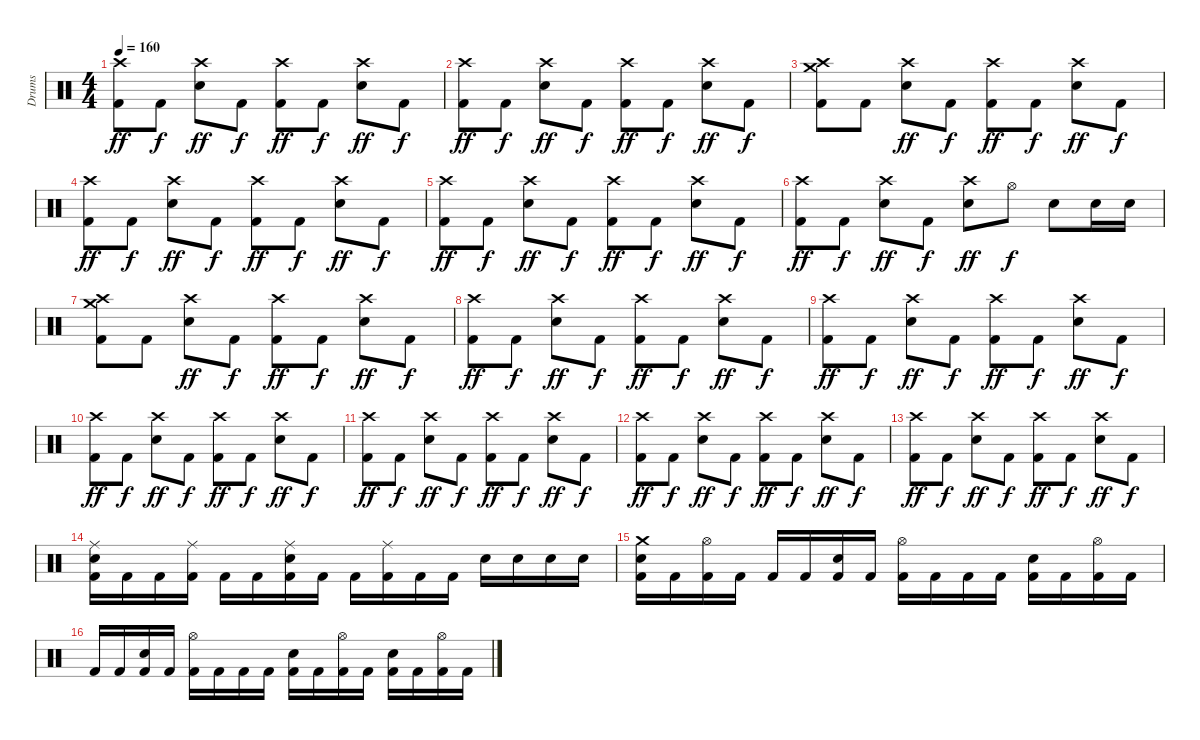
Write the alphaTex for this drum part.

\track ("Drums" "Drums") {instrument percussion}
\staff {score}
\articulation defaults
\ts (4 4)
\tempo 160
\clef neutral
\ks c
("Crash high (hit)" "Kick (hit) 2").8{dy ff} "Kick (hit) 2".8{dy f} ("Crash high (hit)" "Snare (hit) 2").8{dy ff} "Kick (hit) 2".8{dy f} ("Crash high (hit)" "Kick (hit) 2").8{dy ff} "Kick (hit) 2".8{dy f} ("Crash high (hit)" "Snare (hit) 2").8{dy ff} "Kick (hit) 2".8{dy f} |
("Crash high (hit)" "Kick (hit) 2").8{dy ff} "Kick (hit) 2".8{dy f} ("Crash high (hit)" "Snare (hit) 2").8{dy ff} "Kick (hit) 2".8{dy f} ("Crash high (hit)" "Kick (hit) 2").8{dy ff} "Kick (hit) 2".8{dy f} ("Crash high (hit)" "Snare (hit) 2").8{dy ff} "Kick (hit) 2".8{dy f} |
("Crash high (hit)" "Crash medium (hit)" "Kick (hit) 2").8 "Kick (hit) 2".8 ("Crash high (hit)" "Snare (hit) 2").8{dy ff} "Kick (hit) 2".8{dy f} ("Crash high (hit)" "Kick (hit) 2").8{dy ff} "Kick (hit) 2".8{dy f} ("Crash high (hit)" "Snare (hit) 2").8{dy ff} "Kick (hit) 2".8{dy f} |
("Crash high (hit)" "Kick (hit) 2").8{dy ff} "Kick (hit) 2".8{dy f} ("Crash high (hit)" "Snare (hit) 2").8{dy ff} "Kick (hit) 2".8{dy f} ("Crash high (hit)" "Kick (hit) 2").8{dy ff} "Kick (hit) 2".8{dy f} ("Crash high (hit)" "Snare (hit) 2").8{dy ff} "Kick (hit) 2".8{dy f} |
("Crash high (hit)" "Kick (hit) 2").8{dy ff} "Kick (hit) 2".8{dy f} ("Crash high (hit)" "Snare (hit) 2").8{dy ff} "Kick (hit) 2".8{dy f} ("Crash high (hit)" "Kick (hit) 2").8{dy ff} "Kick (hit) 2".8{dy f} ("Crash high (hit)" "Snare (hit) 2").8{dy ff} "Kick (hit) 2".8{dy f} |
("Crash high (hit)" "Kick (hit) 2").8{dy ff} "Kick (hit) 2".8{dy f} ("Crash high (hit)" "Snare (hit) 2").8{dy ff} "Kick (hit) 2".8{dy f} ("Crash high (hit)" "Snare (hit) 2").8{dy ff} "Hi-Hat (open)".8{dy f} "Snare (hit) 2".8 "Snare (hit) 2".16 "Snare (hit) 2".16 |
("Crash high (hit)" "Crash medium (hit)" "Kick (hit) 2").8 "Kick (hit) 2".8 ("Crash high (hit)" "Snare (hit) 2").8{dy ff} "Kick (hit) 2".8{dy f} ("Crash high (hit)" "Kick (hit) 2").8{dy ff} "Kick (hit) 2".8{dy f} ("Crash high (hit)" "Snare (hit) 2").8{dy ff} "Kick (hit) 2".8{dy f} |
("Crash high (hit)" "Kick (hit) 2").8{dy ff} "Kick (hit) 2".8{dy f} ("Crash high (hit)" "Snare (hit) 2").8{dy ff} "Kick (hit) 2".8{dy f} ("Crash high (hit)" "Kick (hit) 2").8{dy ff} "Kick (hit) 2".8{dy f} ("Crash high (hit)" "Snare (hit) 2").8{dy ff} "Kick (hit) 2".8{dy f} |
("Crash high (hit)" "Kick (hit) 2").8{dy ff} "Kick (hit) 2".8{dy f} ("Crash high (hit)" "Snare (hit) 2").8{dy ff} "Kick (hit) 2".8{dy f} ("Crash high (hit)" "Kick (hit) 2").8{dy ff} "Kick (hit) 2".8{dy f} ("Crash high (hit)" "Snare (hit) 2").8{dy ff} "Kick (hit) 2".8{dy f} |
("Crash high (hit)" "Kick (hit) 2").8{dy ff} "Kick (hit) 2".8{dy f} ("Crash high (hit)" "Snare (hit) 2").8{dy ff} "Kick (hit) 2".8{dy f} ("Crash high (hit)" "Kick (hit) 2").8{dy ff} "Kick (hit) 2".8{dy f} ("Crash high (hit)" "Snare (hit) 2").8{dy ff} "Kick (hit) 2".8{dy f} |
("Crash high (hit)" "Kick (hit) 2").8{dy ff} "Kick (hit) 2".8{dy f} ("Crash high (hit)" "Snare (hit) 2").8{dy ff} "Kick (hit) 2".8{dy f} ("Crash high (hit)" "Kick (hit) 2").8{dy ff} "Kick (hit) 2".8{dy f} ("Crash high (hit)" "Snare (hit) 2").8{dy ff} "Kick (hit) 2".8{dy f} |
("Crash high (hit)" "Kick (hit) 2").8{dy ff} "Kick (hit) 2".8{dy f} ("Crash high (hit)" "Snare (hit) 2").8{dy ff} "Kick (hit) 2".8{dy f} ("Crash high (hit)" "Kick (hit) 2").8{dy ff} "Kick (hit) 2".8{dy f} ("Crash high (hit)" "Snare (hit) 2").8{dy ff} "Kick (hit) 2".8{dy f} |
("Crash high (hit)" "Kick (hit) 2").8{dy ff} "Kick (hit) 2".8{dy f} ("Crash high (hit)" "Snare (hit) 2").8{dy ff} "Kick (hit) 2".8{dy f} ("Crash high (hit)" "Kick (hit) 2").8{dy ff} "Kick (hit) 2".8{dy f} ("Crash high (hit)" "Snare (hit) 2").8{dy ff} "Kick (hit) 2".8{dy f} |
("Ride (middle)" "Snare (hit) 2" "Kick (hit) 2").16 "Kick (hit) 2".16 "Kick (hit) 2".16 ("Ride (middle)" "Kick (hit) 2").16 "Kick (hit) 2".16 "Kick (hit) 2".16 ("Ride (middle)" "Snare (hit) 2" "Kick (hit) 2").16 "Kick (hit) 2".16 "Kick (hit) 2".16 ("Ride (middle)" "Kick (hit) 2").16 "Kick (hit) 2".16 "Kick (hit) 2".16 "Snare (hit) 2".16 "Snare (hit) 2".16 "Snare (hit) 2".16 "Snare (hit) 2".16 |
("Crash medium (hit)" "Snare (hit) 2" "Kick (hit) 2").16 "Kick (hit) 2".16 ("Hi-Hat (open)" "Kick (hit) 2").16 "Kick (hit) 2".16 "Kick (hit) 2".16 "Kick (hit) 2".16 ("Snare (hit) 2" "Kick (hit) 2").16 "Kick (hit) 2".16 ("Hi-Hat (open)" "Kick (hit) 2").16 "Kick (hit) 2".16 "Kick (hit) 2".16 "Kick (hit) 2".16 ("Snare (hit) 2" "Kick (hit) 2").16 "Kick (hit) 2".16 ("Hi-Hat (open)" "Kick (hit) 2").16 "Kick (hit) 2".16 |
"Kick (hit) 2".16 "Kick (hit) 2".16 ("Snare (hit) 2" "Kick (hit) 2").16 "Kick (hit) 2".16 ("Hi-Hat (open)" "Kick (hit) 2").16 "Kick (hit) 2".16 "Kick (hit) 2".16 "Kick (hit) 2".16 ("Snare (hit) 2" "Kick (hit) 2").16 "Kick (hit) 2".16 ("Hi-Hat (open)" "Kick (hit) 2").16 "Kick (hit) 2".16 ("Snare (hit) 2" "Kick (hit) 2").16 "Kick (hit) 2".16 ("Hi-Hat (open)" "Kick (hit) 2").16 "Kick (hit) 2".16
